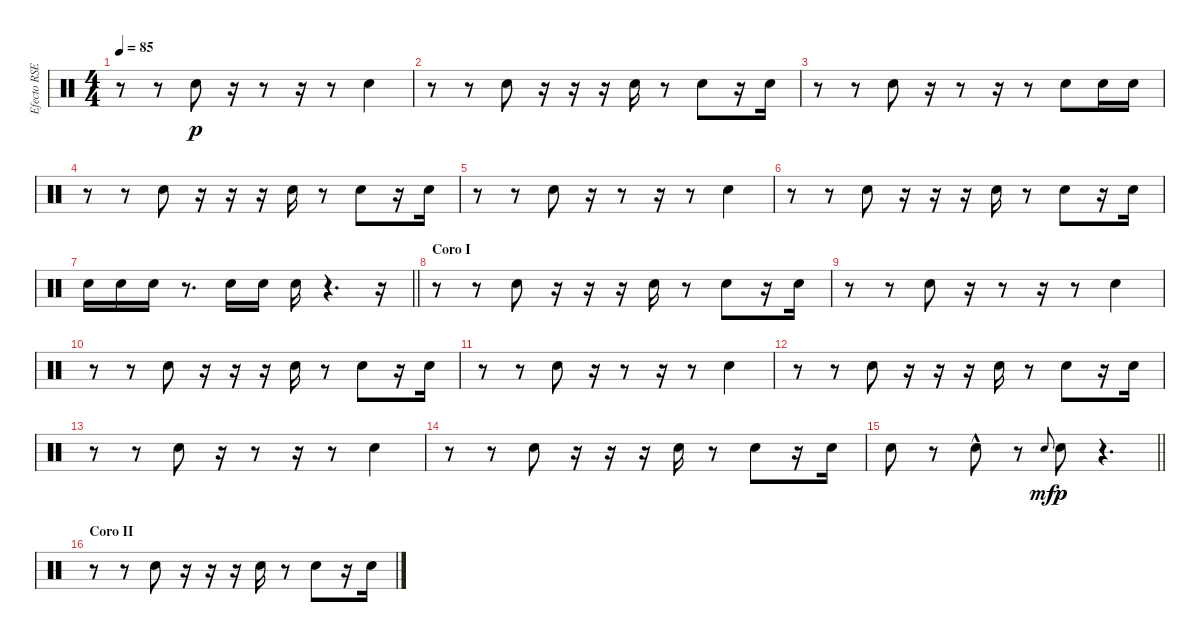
\track ("Efecto RSE (GP5)" "Efecto RSE") {instrument percussion}
\staff {score}
\articulation defaults
\ts (4 4)
\tempo 85
\clef neutral
\ks c
r.8{dy p} r.8 "Electric Snare (hit)".8 r.16 r.8 r.16 r.8 "Electric Snare (hit)".4 |
r.8 r.8 "Electric Snare (hit)".8 r.16 r.16 r.16 "Electric Snare (hit)".16 r.8 "Electric Snare (hit)".8 r.16 "Electric Snare (hit)".16 |
r.8 r.8 "Electric Snare (hit)".8 r.16 r.8 r.16 r.8 "Electric Snare (hit)".8 "Electric Snare (hit)".16 "Electric Snare (hit)".16 |
r.8 r.8 "Electric Snare (hit)".8 r.16 r.16 r.16 "Electric Snare (hit)".16 r.8 "Electric Snare (hit)".8 r.16 "Electric Snare (hit)".16 |
r.8 r.8 "Electric Snare (hit)".8 r.16 r.8 r.16 r.8 "Electric Snare (hit)".4 |
r.8 r.8 "Electric Snare (hit)".8 r.16 r.16 r.16 "Electric Snare (hit)".16 r.8 "Electric Snare (hit)".8 r.16 "Electric Snare (hit)".16 |
\barLineRight lightlight "Electric Snare (hit)".16 "Electric Snare (hit)".16 "Electric Snare (hit)".16
r.8{d} "Electric Snare (hit)".16 "Electric Snare (hit)".16 "Electric Snare (hit)".16 r.4{d} r.16 |
\section ("" "Coro I")
r.8 r.8 "Electric Snare (hit)".8 r.16 r.16 r.16 "Electric Snare (hit)".16 r.8 "Electric Snare (hit)".8 r.16 "Electric Snare (hit)".16 |
r.8 r.8 "Electric Snare (hit)".8 r.16 r.8 r.16 r.8 "Electric Snare (hit)".4 |
r.8 r.8 "Electric Snare (hit)".8 r.16 r.16 r.16 "Electric Snare (hit)".16 r.8 "Electric Snare (hit)".8 r.16 "Electric Snare (hit)".16 |
r.8 r.8 "Electric Snare (hit)".8 r.16 r.8 r.16 r.8 "Electric Snare (hit)".4 |
r.8 r.8 "Electric Snare (hit)".8 r.16 r.16 r.16 "Electric Snare (hit)".16 r.8 "Electric Snare (hit)".8 r.16 "Electric Snare (hit)".16 |
r.8 r.8 "Electric Snare (hit)".8 r.16 r.8 r.16 r.8 "Electric Snare (hit)".4 |
r.8 r.8 "Electric Snare (hit)".8 r.16 r.16 r.16 "Electric Snare (hit)".16 r.8 "Electric Snare (hit)".8 r.16 "Electric Snare (hit)".16 |
\barLineRight lightlight "Electric Snare (hit)".8
r.8 "Electric Snare (hit)"{hac}.8 r.8 "Electric Snare (hit)".8{gr onbeat dy mf} "Electric Snare (hit)".8{dy p} r.4{d} |
\section ("" "Coro II")
r.8 r.8 "Electric Snare (hit)".8 r.16 r.16 r.16 "Electric Snare (hit)".16 r.8 "Electric Snare (hit)".8 r.16 "Electric Snare (hit)".16
